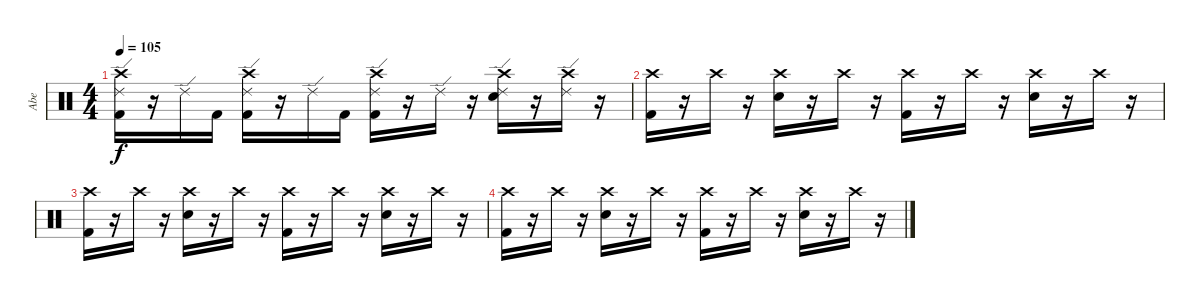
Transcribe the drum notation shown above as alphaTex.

\track ("Abe" "Abe") {instrument percussion}
\staff {score}
\articulation defaults
\ts (4 4)
\tempo 105
\clef neutral
\ks c
("Crash high (hit)" "Ride (edge) 2" "Kick (hit) 2").16{dy f} r.16 "Ride (edge) 2".16 "Kick (hit) 2".16 ("Crash high (hit)" "Ride (edge) 2" "Kick (hit) 2").16 r.16 "Ride (edge) 2".16 "Kick (hit) 2".16 ("Crash high (hit)" "Ride (edge) 2" "Kick (hit) 2").16 r.16 "Ride (edge) 2".16 r.16 ("Crash high (hit)" "Ride (edge) 2" "Electric Snare (hit)").16 r.16 ("Crash high (hit)" "Ride (edge) 2").16 r.16 |
("Crash high (hit)" "Kick (hit) 2").16 r.16 "Crash high (hit)".16 r.16 ("Crash high (hit)" "Electric Snare (hit)").16 r.16 "Crash high (hit)".16 r.16 ("Crash high (hit)" "Kick (hit) 2").16 r.16 "Crash high (hit)".16 r.16 ("Crash high (hit)" "Electric Snare (hit)").16 r.16 "Crash high (hit)".16 r.16 |
("Crash high (hit)" "Kick (hit) 2").16 r.16 "Crash high (hit)".16 r.16 ("Crash high (hit)" "Electric Snare (hit)").16 r.16 "Crash high (hit)".16 r.16 ("Crash high (hit)" "Kick (hit) 2").16 r.16 "Crash high (hit)".16 r.16 ("Crash high (hit)" "Electric Snare (hit)").16 r.16 "Crash high (hit)".16 r.16 |
("Crash high (hit)" "Kick (hit) 2").16 r.16 "Crash high (hit)".16 r.16 ("Crash high (hit)" "Electric Snare (hit)").16 r.16 "Crash high (hit)".16 r.16 ("Crash high (hit)" "Kick (hit) 2").16 r.16 "Crash high (hit)".16 r.16 ("Crash high (hit)" "Electric Snare (hit)").16 r.16 "Crash high (hit)".16 r.16
